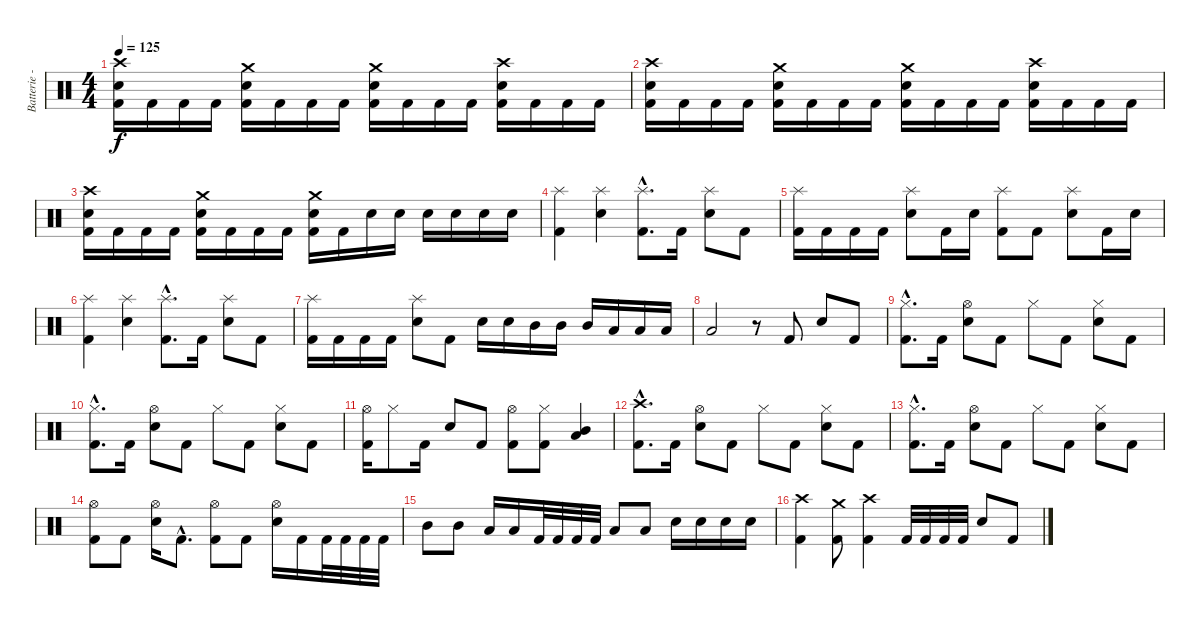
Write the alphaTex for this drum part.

\track ("Batterie - Anton" "Batterie -") {instrument percussion}
\staff {score}
\articulation defaults
\ts (4 4)
\tempo 125
\clef neutral
\ks c
("Crash high (hit)" "Electric Snare (hit)" "Kick (hit) 2").16{dy f} "Kick (hit) 2".16 "Kick (hit) 2".16 "Kick (hit) 2".16 ("Crash medium (hit)" "Electric Snare (hit)" "Kick (hit) 2").16 "Kick (hit) 2".16 "Kick (hit) 2".16 "Kick (hit) 2".16 ("Crash medium (hit)" "Electric Snare (hit)" "Kick (hit) 2").16 "Kick (hit) 2".16 "Kick (hit) 2".16 "Kick (hit) 2".16 ("Crash high (hit)" "Electric Snare (hit)" "Kick (hit) 2").16 "Kick (hit) 2".16 "Kick (hit) 2".16 "Kick (hit) 2".16 |
("Crash high (hit)" "Electric Snare (hit)" "Kick (hit) 2").16 "Kick (hit) 2".16 "Kick (hit) 2".16 "Kick (hit) 2".16 ("Crash medium (hit)" "Electric Snare (hit)" "Kick (hit) 2").16 "Kick (hit) 2".16 "Kick (hit) 2".16 "Kick (hit) 2".16 ("Crash medium (hit)" "Electric Snare (hit)" "Kick (hit) 2").16 "Kick (hit) 2".16 "Kick (hit) 2".16 "Kick (hit) 2".16 ("Crash high (hit)" "Electric Snare (hit)" "Kick (hit) 2").16 "Kick (hit) 2".16 "Kick (hit) 2".16 "Kick (hit) 2".16 |
("Crash high (hit)" "Electric Snare (hit)" "Kick (hit) 2").16 "Kick (hit) 2".16 "Kick (hit) 2".16 "Kick (hit) 2".16 ("Crash medium (hit)" "Electric Snare (hit)" "Kick (hit) 2").16 "Kick (hit) 2".16 "Kick (hit) 2".16 "Kick (hit) 2".16 ("Crash medium (hit)" "Electric Snare (hit)" "Kick (hit) 2").16 "Kick (hit) 2".16 "Electric Snare (hit)".16 "Electric Snare (hit)".16 "Electric Snare (hit)".16 "Electric Snare (hit)".16 "Electric Snare (hit)".16 "Electric Snare (hit)".16 |
("Splash (hit)" "Kick (hit) 2").4 ("Splash (hit)" "Electric Snare (hit)").4 ("Splash (hit)"{hac} "Kick (hit) 2"{hac}).8{d} "Kick (hit) 2".16 ("Splash (hit)" "Electric Snare (hit)").8 "Kick (hit) 2".8 |
("Splash (hit)" "Kick (hit) 2").16 "Kick (hit) 2".16 "Kick (hit) 2".16 "Kick (hit) 2".16 ("Splash (hit)" "Electric Snare (hit)").8 "Kick (hit) 2".16 "Electric Snare (hit)".16 ("Splash (hit)" "Kick (hit) 2").8 "Kick (hit) 2".8 ("Splash (hit)" "Electric Snare (hit)").8 "Kick (hit) 2".16 "Electric Snare (hit)".16 |
("Splash (hit)" "Kick (hit) 2").4 ("Splash (hit)" "Electric Snare (hit)").4 ("Splash (hit)"{hac} "Kick (hit) 2"{hac}).8{d} "Kick (hit) 2".16 ("Splash (hit)" "Electric Snare (hit)").8 "Kick (hit) 2".8 |
("Splash (hit)" "Kick (hit) 2").16 "Kick (hit) 2".16 "Kick (hit) 2".16 "Kick (hit) 2".16 ("Splash (hit)" "Electric Snare (hit)").8 "Kick (hit) 2".8 "Electric Snare (hit)".16 "Electric Snare (hit)".16 "Mid Tom (hit)".16 "Mid Tom (hit)".16 "Mid Tom (hit)".16 "Low Tom (hit)".16 "Low Tom (hit)".16 "Low Tom (hit)".16 |
"Low Floor Tom (hit)".2 r.8 "Kick (hit) 2".8 "Electric Snare (hit)".8 "Kick (hit) 2".8 |
("Hi-Hat (closed)"{hac} "Kick (hit) 2"{hac}).8{d} "Kick (hit) 2".16 ("Hi-Hat (open)" "Electric Snare (hit)").8 "Kick (hit) 2".8 "Hi-Hat (closed)".8 "Kick (hit) 2".8 ("Hi-Hat (closed)" "Electric Snare (hit)").8 "Kick (hit) 2".8 |
("Hi-Hat (closed)"{hac} "Kick (hit) 2"{hac}).8{d} "Kick (hit) 2".16 ("Hi-Hat (open)" "Electric Snare (hit)").8 "Kick (hit) 2".8 "Hi-Hat (closed)".8 "Kick (hit) 2".8 ("Hi-Hat (closed)" "Electric Snare (hit)").8 "Kick (hit) 2".8 |
("Hi-Hat (open)" "Kick (hit) 2").16 "Hi-Hat (closed)".8 "Kick (hit) 2".16 "Electric Snare (hit)".8 "Kick (hit) 2".8 ("Hi-Hat (open)" "Kick (hit) 2").8 ("Hi-Hat (closed)" "Kick (hit) 2").8 ("Low Tom (hit)" "Mid Tom (hit)").4 |
("Crash high (hit)"{hac} "Kick (hit) 2"{hac}).8{d} "Kick (hit) 2".16 ("Hi-Hat (open)" "Electric Snare (hit)").8 "Kick (hit) 2".8 "Hi-Hat (closed)".8 "Kick (hit) 2".8 ("Hi-Hat (closed)" "Electric Snare (hit)").8 "Kick (hit) 2".8 |
("Hi-Hat (closed)"{hac} "Kick (hit) 2"{hac}).8{d} "Kick (hit) 2".16 ("Hi-Hat (open)" "Electric Snare (hit)").8 "Kick (hit) 2".8 "Hi-Hat (closed)".8 "Kick (hit) 2".8 ("Hi-Hat (closed)" "Electric Snare (hit)").8 "Kick (hit) 2".8 |
("Hi-Hat (open)" "Kick (hit) 2").8 "Kick (hit) 2".8 ("Hi-Hat (open)" "Electric Snare (hit)").16 "Kick (hit) 2"{hac}.8{d} ("Hi-Hat (open)" "Kick (hit) 2").8 "Kick (hit) 2".8 ("Hi-Hat (open)" "Electric Snare (hit)").16 "Kick (hit) 2".16 "Kick (hit) 2".32 "Kick (hit) 2".32 "Kick (hit) 2".32 "Kick (hit) 2".32 |
"Mid Tom (hit)".8 "Mid Tom (hit)".8 "Low Floor Tom (hit)".16 "Low Floor Tom (hit)".16 "Kick (hit) 2".32 "Kick (hit) 2".32 "Kick (hit) 2".32 "Kick (hit) 2".32 "Low Tom (hit)".8 "Low Tom (hit)".8 "Electric Snare (hit)".16 "Electric Snare (hit)".16 "Electric Snare (hit)".16 "Electric Snare (hit)".16 |
("Crash high (hit)" "Kick (hit) 2").4 ("Crash medium (hit)" "Kick (hit) 2").8 ("Crash high (hit)" "Kick (hit) 2").4 "Kick (hit) 2".32 "Kick (hit) 2".32 "Kick (hit) 2".32 "Kick (hit) 2".32 "Electric Snare (hit)".8 "Kick (hit) 2".8
